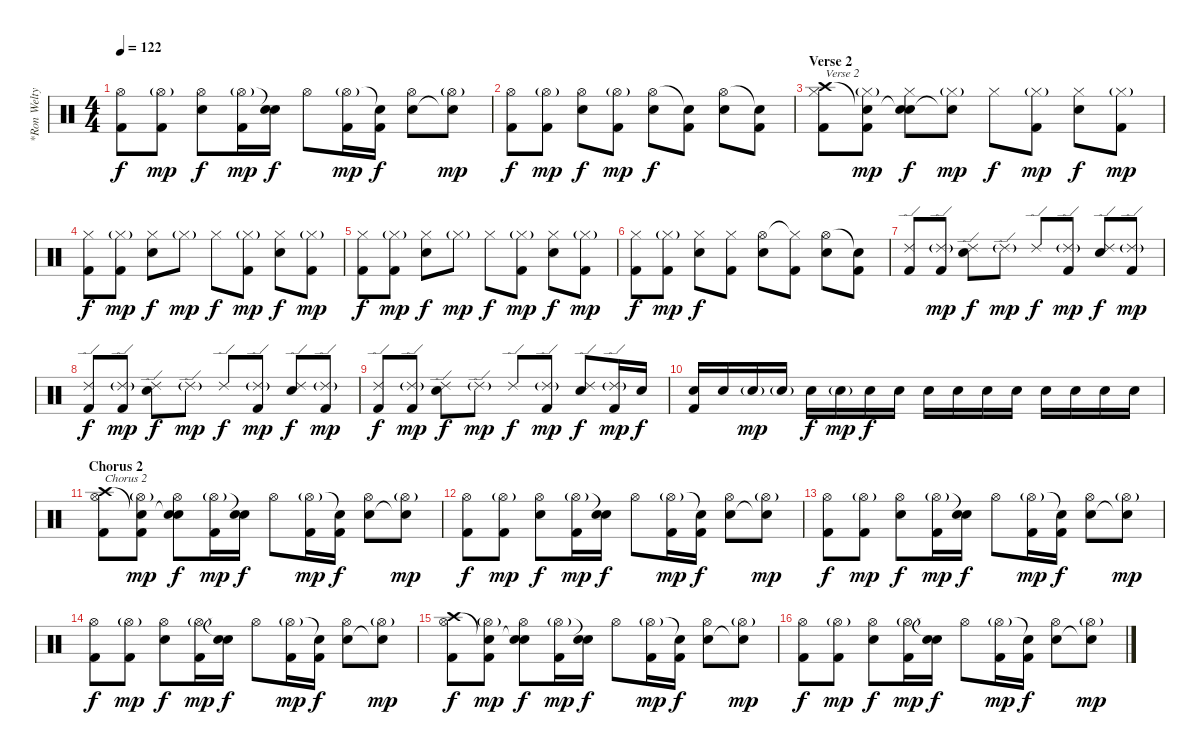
\track ("*Ron Welty (Ex-drummer)" "*Ron Welty") {instrument percussion}
\staff {score}
\articulation defaults
\ts (4 4)
\tempo 122
\clef neutral
\ks c
("Hi-Hat (open)" "Kick (hit) 2").8{dy f volume 12} ("Hi-Hat (open)"{g} "Kick (hit) 2").8{dy mp} ("Hi-Hat (open)" "Electric Snare (hit)").8{dy f} ("Hi-Hat (open)"{g} "Kick (hit) 2").16{dy mp} ("Snare (hit)"{t} "Electric Snare (hit)").16{dy f} "Hi-Hat (open)".8 ("Hi-Hat (open)"{g} "Kick (hit) 2").16{dy mp} ("Snare (hit)"{t} "Kick (hit) 2").16{dy f} ("Hi-Hat (open)" "Electric Snare (hit)").8 ("Hi-Hat (open)"{g} "Snare (hit)"{t}).8{dy mp} |
("Hi-Hat (open)" "Kick (hit) 2").8{dy f volume 12} ("Hi-Hat (open)"{g} "Kick (hit) 2").8{dy mp} ("Hi-Hat (open)" "Electric Snare (hit)").8{dy f} ("Hi-Hat (open)"{g} "Kick (hit) 2").8{dy mp} ("Hi-Hat (open)" "Electric Snare (hit)").8{dy f} ("Snare (hit)"{t} "Kick (hit) 2").8 ("Hi-Hat (open)" "Electric Snare (hit)").8 ("Snare (hit)"{t} "Kick (hit) 2").8 |
\section ("" "Verse 2")
("Crash high (hit)" "Hi-Hat (closed)" "Kick (hit) 2").8{txt "Verse 2" volume 10 balance 8} ("Snare (hit)"{t} "Hi-Hat (closed)"{g} "Kick (hit) 2").8{dy mp balance 8} ("Snare (hit)"{t} "Hi-Hat (closed)" "Electric Snare (hit)").8{dy f balance 8} ("Snare (hit)"{t} "Hi-Hat (closed)"{g}).8{dy mp balance 8} "Hi-Hat (closed)".8{dy f} ("Hi-Hat (closed)"{g} "Kick (hit) 2").8{dy mp balance 8} ("Hi-Hat (closed)" "Electric Snare (hit)").8{dy f} ("Hi-Hat (closed)"{g} "Kick (hit) 2").8{dy mp} |
("Hi-Hat (closed)" "Kick (hit) 2").8{dy f balance 8} ("Hi-Hat (closed)"{g} "Kick (hit) 2").8{dy mp} ("Hi-Hat (closed)" "Electric Snare (hit)").8{dy f} "Hi-Hat (closed)"{g}.8{dy mp} "Hi-Hat (closed)".8{dy f} ("Hi-Hat (closed)"{g} "Kick (hit) 2").8{dy mp} ("Hi-Hat (closed)" "Electric Snare (hit)").8{dy f} ("Hi-Hat (closed)"{g} "Kick (hit) 2").8{dy mp} |
("Hi-Hat (closed)" "Kick (hit) 2").8{dy f balance 8} ("Hi-Hat (closed)"{g} "Kick (hit) 2").8{dy mp} ("Hi-Hat (closed)" "Electric Snare (hit)").8{dy f} "Hi-Hat (closed)"{g}.8{dy mp} "Hi-Hat (closed)".8{dy f} ("Hi-Hat (closed)"{g} "Kick (hit) 2").8{dy mp} ("Hi-Hat (closed)" "Electric Snare (hit)").8{dy f} ("Hi-Hat (closed)"{g} "Kick (hit) 2").8{dy mp} |
("Hi-Hat (closed)" "Kick (hit) 2").8{dy f balance 8} ("Hi-Hat (closed)"{g} "Kick (hit) 2").8{dy mp} ("Hi-Hat (closed)" "Electric Snare (hit)").8{dy f} ("Hi-Hat (closed)" "Kick (hit) 2").8 ("Hi-Hat (open)" "Electric Snare (hit)").8 ("Hi-Hat (closed)"{t} "Kick (hit) 2").8 ("Hi-Hat (open)" "Electric Snare (hit)").8 ("Snare (hit)"{t} "Kick (hit) 2").8 |
("Ride (edge) 2" "Kick (hit) 2").8{balance 8} ("Ride (edge) 2"{g} "Kick (hit) 2").8{dy mp} ("Ride (edge) 2" "Electric Snare (hit)").8{dy f} "Ride (edge) 2"{g}.8{dy mp} "Ride (edge) 2".8{dy f} ("Ride (edge) 2"{g} "Kick (hit) 2").8{dy mp} ("Ride (edge) 2" "Electric Snare (hit)").8{dy f} ("Ride (edge) 2"{g} "Kick (hit) 2").8{dy mp} |
("Ride (edge) 2" "Kick (hit) 2").8{dy f balance 8} ("Ride (edge) 2"{g} "Kick (hit) 2").8{dy mp} ("Ride (edge) 2" "Electric Snare (hit)").8{dy f} "Ride (edge) 2"{g}.8{dy mp} "Ride (edge) 2".8{dy f} ("Ride (edge) 2"{g} "Kick (hit) 2").8{dy mp} ("Ride (edge) 2" "Electric Snare (hit)").8{dy f} ("Ride (edge) 2"{g} "Kick (hit) 2").8{dy mp} |
("Ride (edge) 2" "Kick (hit) 2").8{dy f balance 8} ("Ride (edge) 2"{g} "Kick (hit) 2").8{dy mp} ("Ride (edge) 2" "Electric Snare (hit)").8{dy f} "Ride (edge) 2"{g}.8{dy mp} "Ride (edge) 2".8{dy f} ("Ride (edge) 2"{g} "Kick (hit) 2").8{dy mp} ("Ride (edge) 2" "Electric Snare (hit)").8{dy f} ("Ride (edge) 2"{g} "Kick (hit) 2").16{dy mp} "Electric Snare (hit)".16{dy f} |
("Electric Snare (hit)" "Kick (hit) 2").16{balance 8} "Electric Snare (hit)".16 "Electric Snare (hit)"{g}.16{dy mp} "Electric Snare (hit)"{g}.16 "Electric Snare (hit)".16{dy f} "Electric Snare (hit)"{g}.16{dy mp} "Electric Snare (hit)".16{dy f} "Electric Snare (hit)".16 "Electric Snare (hit)".16 "Electric Snare (hit)".16 "Electric Snare (hit)".16 "Electric Snare (hit)".16 "Electric Snare (hit)".16 "Electric Snare (hit)".16 "Electric Snare (hit)".16 "Electric Snare (hit)".16 |
\section ("" "Chorus 2")
("Crash high (hit)" "Hi-Hat (open)" "Kick (hit) 2").8{txt "Chorus 2" volume 12 balance 8} ("Snare (hit)"{t} "Hi-Hat (open)"{g} "Kick (hit) 2").8{dy mp} ("Snare (hit)"{t} "Hi-Hat (open)" "Electric Snare (hit)").8{dy f} ("Hi-Hat (open)"{g} "Kick (hit) 2").16{dy mp} ("Snare (hit)"{t} "Electric Snare (hit)").16{dy f} "Hi-Hat (open)".8 ("Hi-Hat (open)"{g} "Kick (hit) 2").16{dy mp} ("Snare (hit)"{t} "Kick (hit) 2").16{dy f} ("Hi-Hat (open)" "Electric Snare (hit)").8 ("Hi-Hat (open)"{g} "Snare (hit)"{t}).8{dy mp} |
("Hi-Hat (open)" "Kick (hit) 2").8{dy f volume 12} ("Hi-Hat (open)"{g} "Kick (hit) 2").8{dy mp} ("Hi-Hat (open)" "Electric Snare (hit)").8{dy f} ("Hi-Hat (open)"{g} "Kick (hit) 2").16{dy mp} ("Snare (hit)"{t} "Electric Snare (hit)").16{dy f} "Hi-Hat (open)".8 ("Hi-Hat (open)"{g} "Kick (hit) 2").16{dy mp} ("Snare (hit)"{t} "Kick (hit) 2").16{dy f} ("Hi-Hat (open)" "Electric Snare (hit)").8 ("Hi-Hat (open)"{g} "Snare (hit)"{t}).8{dy mp} |
("Hi-Hat (open)" "Kick (hit) 2").8{dy f volume 12} ("Hi-Hat (open)"{g} "Kick (hit) 2").8{dy mp} ("Hi-Hat (open)" "Electric Snare (hit)").8{dy f} ("Hi-Hat (open)"{g} "Kick (hit) 2").16{dy mp} ("Snare (hit)"{t} "Electric Snare (hit)").16{dy f} "Hi-Hat (open)".8 ("Hi-Hat (open)"{g} "Kick (hit) 2").16{dy mp} ("Snare (hit)"{t} "Kick (hit) 2").16{dy f} ("Hi-Hat (open)" "Electric Snare (hit)").8 ("Hi-Hat (open)"{g} "Snare (hit)"{t}).8{dy mp} |
("Hi-Hat (open)" "Kick (hit) 2").8{dy f volume 12} ("Hi-Hat (open)"{g} "Kick (hit) 2").8{dy mp} ("Hi-Hat (open)" "Electric Snare (hit)").8{dy f} ("Hi-Hat (open)"{g} "Kick (hit) 2").16{dy mp} ("Snare (hit)"{t} "Electric Snare (hit)").16{dy f} "Hi-Hat (open)".8 ("Hi-Hat (open)"{g} "Kick (hit) 2").16{dy mp} ("Snare (hit)"{t} "Kick (hit) 2").16{dy f} ("Hi-Hat (open)" "Electric Snare (hit)").8 ("Hi-Hat (open)"{g} "Snare (hit)"{t}).8{dy mp} |
("Crash high (hit)" "Hi-Hat (open)" "Kick (hit) 2").8{dy f volume 12 balance 8} ("Snare (hit)"{t} "Hi-Hat (open)"{g} "Kick (hit) 2").8{dy mp} ("Snare (hit)"{t} "Hi-Hat (open)" "Electric Snare (hit)").8{dy f} ("Hi-Hat (open)"{g} "Kick (hit) 2").16{dy mp} ("Snare (hit)"{t} "Electric Snare (hit)").16{dy f} "Hi-Hat (open)".8 ("Hi-Hat (open)"{g} "Kick (hit) 2").16{dy mp} ("Snare (hit)"{t} "Kick (hit) 2").16{dy f} ("Hi-Hat (open)" "Electric Snare (hit)").8 ("Hi-Hat (open)"{g} "Snare (hit)"{t}).8{dy mp} |
("Hi-Hat (open)" "Kick (hit) 2").8{dy f volume 12} ("Hi-Hat (open)"{g} "Kick (hit) 2").8{dy mp} ("Hi-Hat (open)" "Electric Snare (hit)").8{dy f} ("Hi-Hat (open)"{g} "Kick (hit) 2").16{dy mp} ("Snare (hit)"{t} "Electric Snare (hit)").16{dy f} "Hi-Hat (open)".8 ("Hi-Hat (open)"{g} "Kick (hit) 2").16{dy mp} ("Snare (hit)"{t} "Kick (hit) 2").16{dy f} ("Hi-Hat (open)" "Electric Snare (hit)").8 ("Hi-Hat (open)"{g} "Snare (hit)"{t}).8{dy mp}
